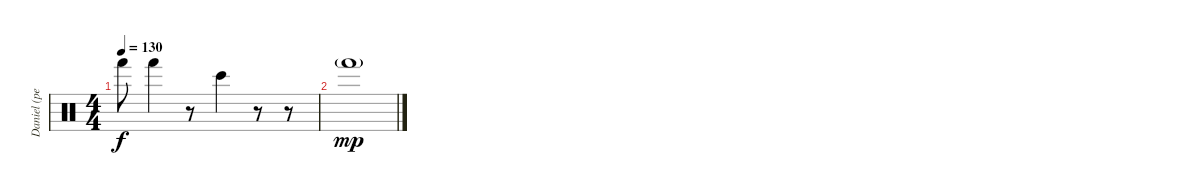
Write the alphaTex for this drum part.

\track ("Daniel (percussion)" "Daniel (pe") {instrument percussion}
\staff {score}
\articulation defaults
\ts (4 4)
\tempo 130
\clef neutral
\ks c "Hand (hit)".8{dy f} "Hand (hit)".4
r.8 "Bongo High (hit)".4 r.8 r.8 |
"Hand (hit)"{g}.1{dy mp}
